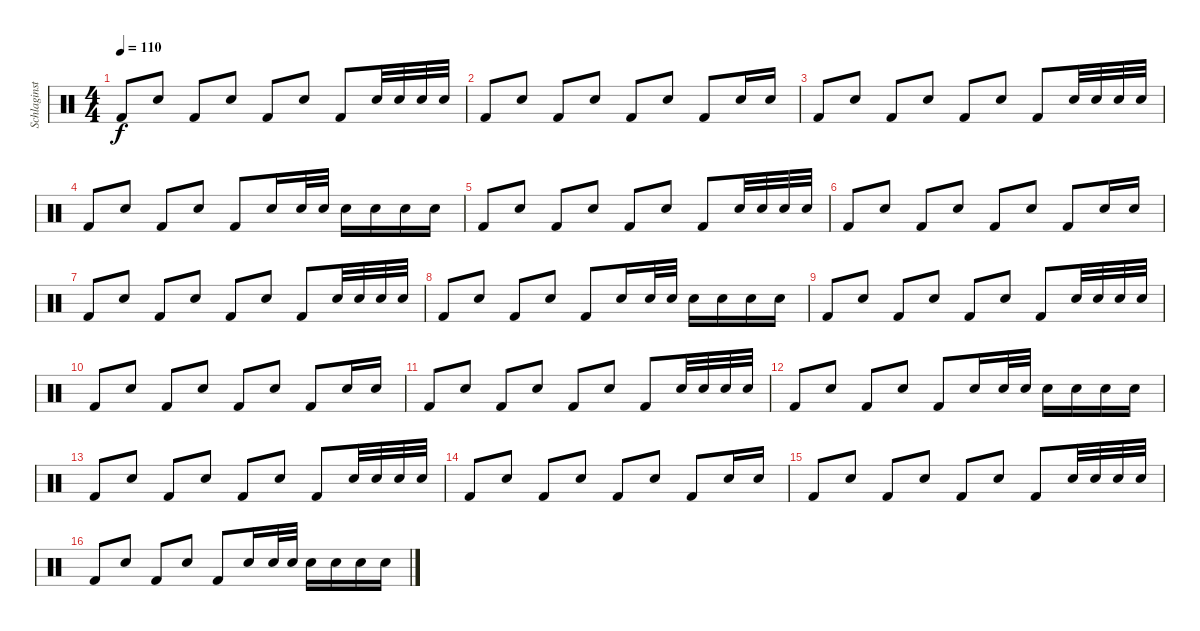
\track ("Schlaginstrumente - Auswahl" "Schlaginst") {instrument percussion}
\staff {score}
\articulation defaults
\ts (4 4)
\tempo 110
\clef neutral
\ks c "Kick (hit) 2".8{dy f} "Electric Snare (hit)".8 "Kick (hit) 2".8 "Electric Snare (hit)".8 "Kick (hit) 2".8 "Electric Snare (hit)".8 "Kick (hit) 2".8 "Electric Snare (hit)".32 "Electric Snare (hit)".32 "Electric Snare (hit)".32 "Electric Snare (hit)".32
|
"Kick (hit) 2".8 "Electric Snare (hit)".8 "Kick (hit) 2".8 "Electric Snare (hit)".8 "Kick (hit) 2".8 "Electric Snare (hit)".8 "Kick (hit) 2".8 "Electric Snare (hit)".16 "Electric Snare (hit)".16 |
"Kick (hit) 2".8 "Electric Snare (hit)".8 "Kick (hit) 2".8 "Electric Snare (hit)".8 "Kick (hit) 2".8 "Electric Snare (hit)".8 "Kick (hit) 2".8 "Electric Snare (hit)".32 "Electric Snare (hit)".32 "Electric Snare (hit)".32 "Electric Snare (hit)".32 |
"Kick (hit) 2".8 "Electric Snare (hit)".8 "Kick (hit) 2".8 "Electric Snare (hit)".8 "Kick (hit) 2".8 "Electric Snare (hit)".16 "Electric Snare (hit)".32 "Electric Snare (hit)".32 "Electric Snare (hit)".16 "Electric Snare (hit)".16 "Electric Snare (hit)".16 "Electric Snare (hit)".16 |
"Kick (hit) 2".8 "Electric Snare (hit)".8 "Kick (hit) 2".8 "Electric Snare (hit)".8 "Kick (hit) 2".8 "Electric Snare (hit)".8 "Kick (hit) 2".8 "Electric Snare (hit)".32 "Electric Snare (hit)".32 "Electric Snare (hit)".32 "Electric Snare (hit)".32 |
"Kick (hit) 2".8 "Electric Snare (hit)".8 "Kick (hit) 2".8 "Electric Snare (hit)".8 "Kick (hit) 2".8 "Electric Snare (hit)".8 "Kick (hit) 2".8 "Electric Snare (hit)".16 "Electric Snare (hit)".16 |
"Kick (hit) 2".8 "Electric Snare (hit)".8 "Kick (hit) 2".8 "Electric Snare (hit)".8 "Kick (hit) 2".8 "Electric Snare (hit)".8 "Kick (hit) 2".8 "Electric Snare (hit)".32 "Electric Snare (hit)".32 "Electric Snare (hit)".32 "Electric Snare (hit)".32 |
"Kick (hit) 2".8 "Electric Snare (hit)".8 "Kick (hit) 2".8 "Electric Snare (hit)".8 "Kick (hit) 2".8 "Electric Snare (hit)".16 "Electric Snare (hit)".32 "Electric Snare (hit)".32 "Electric Snare (hit)".16 "Electric Snare (hit)".16 "Electric Snare (hit)".16 "Electric Snare (hit)".16 |
"Kick (hit) 2".8 "Electric Snare (hit)".8 "Kick (hit) 2".8 "Electric Snare (hit)".8 "Kick (hit) 2".8 "Electric Snare (hit)".8 "Kick (hit) 2".8 "Electric Snare (hit)".32 "Electric Snare (hit)".32 "Electric Snare (hit)".32 "Electric Snare (hit)".32 |
"Kick (hit) 2".8 "Electric Snare (hit)".8 "Kick (hit) 2".8 "Electric Snare (hit)".8 "Kick (hit) 2".8 "Electric Snare (hit)".8 "Kick (hit) 2".8 "Electric Snare (hit)".16 "Electric Snare (hit)".16 |
"Kick (hit) 2".8 "Electric Snare (hit)".8 "Kick (hit) 2".8 "Electric Snare (hit)".8 "Kick (hit) 2".8 "Electric Snare (hit)".8 "Kick (hit) 2".8 "Electric Snare (hit)".32 "Electric Snare (hit)".32 "Electric Snare (hit)".32 "Electric Snare (hit)".32 |
"Kick (hit) 2".8 "Electric Snare (hit)".8 "Kick (hit) 2".8 "Electric Snare (hit)".8 "Kick (hit) 2".8 "Electric Snare (hit)".16 "Electric Snare (hit)".32 "Electric Snare (hit)".32 "Electric Snare (hit)".16 "Electric Snare (hit)".16 "Electric Snare (hit)".16 "Electric Snare (hit)".16 |
"Kick (hit) 2".8 "Electric Snare (hit)".8 "Kick (hit) 2".8 "Electric Snare (hit)".8 "Kick (hit) 2".8 "Electric Snare (hit)".8 "Kick (hit) 2".8 "Electric Snare (hit)".32 "Electric Snare (hit)".32 "Electric Snare (hit)".32 "Electric Snare (hit)".32 |
"Kick (hit) 2".8 "Electric Snare (hit)".8 "Kick (hit) 2".8 "Electric Snare (hit)".8 "Kick (hit) 2".8 "Electric Snare (hit)".8 "Kick (hit) 2".8 "Electric Snare (hit)".16 "Electric Snare (hit)".16 |
"Kick (hit) 2".8 "Electric Snare (hit)".8 "Kick (hit) 2".8 "Electric Snare (hit)".8 "Kick (hit) 2".8 "Electric Snare (hit)".8 "Kick (hit) 2".8 "Electric Snare (hit)".32 "Electric Snare (hit)".32 "Electric Snare (hit)".32 "Electric Snare (hit)".32 |
"Kick (hit) 2".8 "Electric Snare (hit)".8 "Kick (hit) 2".8 "Electric Snare (hit)".8 "Kick (hit) 2".8 "Electric Snare (hit)".16 "Electric Snare (hit)".32 "Electric Snare (hit)".32 "Electric Snare (hit)".16 "Electric Snare (hit)".16 "Electric Snare (hit)".16 "Electric Snare (hit)".16
